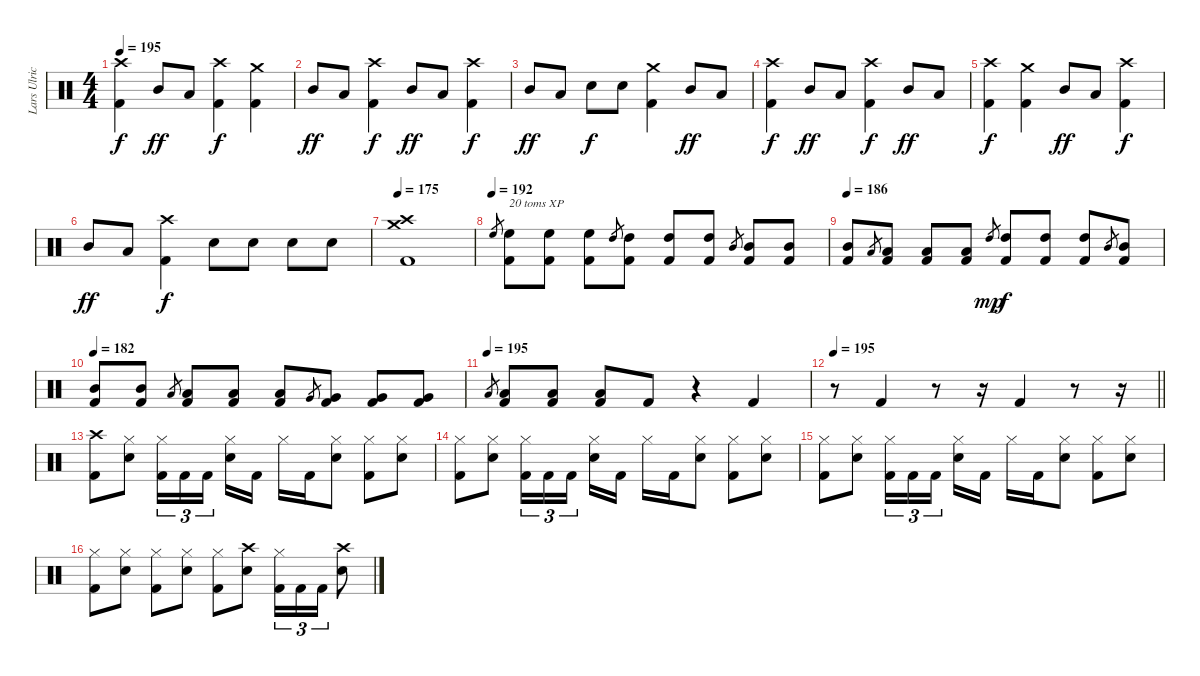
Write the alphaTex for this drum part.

\track ("Lars Ulrich" "Lars Ulric") {instrument percussion}
\staff {score}
\articulation defaults
\ts (4 4)
\tempo 195
\clef neutral
\ks c
("Crash high (hit)" "Kick (hit) 2").4{dy f} "Mid Tom (hit)".8{dy ff} "Low Tom (hit)".8 ("Crash high (hit)" "Kick (hit) 2").4{dy f} ("Crash medium (hit)" "Kick (hit) 2").4 |
"Mid Tom (hit)".8{dy ff} "Low Tom (hit)".8 ("Crash high (hit)" "Kick (hit) 2").4{dy f} "Mid Tom (hit)".8{dy ff} "Low Tom (hit)".8 ("Crash high (hit)" "Kick (hit) 2").4{dy f} |
"Mid Tom (hit)".8{dy ff} "Low Tom (hit)".8 "Electric Snare (hit)".8{dy f} "Electric Snare (hit)".8 ("Crash medium (hit)" "Kick (hit) 2").4 "Mid Tom (hit)".8{dy ff} "Low Tom (hit)".8 |
("Crash high (hit)" "Kick (hit) 2").4{dy f} "Mid Tom (hit)".8{dy ff} "Low Tom (hit)".8 ("Crash high (hit)" "Kick (hit) 2").4{dy f} "Mid Tom (hit)".8{dy ff} "Low Tom (hit)".8 |
("Crash high (hit)" "Kick (hit) 2").4{dy f} ("Crash medium (hit)" "Kick (hit) 2").4 "Mid Tom (hit)".8{dy ff} "Low Tom (hit)".8 ("Crash high (hit)" "Kick (hit) 2").4{dy f} |
"Mid Tom (hit)".8{dy ff} "Low Tom (hit)".8 ("Crash high (hit)" "Kick (hit) 2").4{dy f} "Electric Snare (hit)".8 "Electric Snare (hit)".8 "Electric Snare (hit)".8 "Electric Snare (hit)".8 |
\tempo 198
\tempo 175
("Crash medium (hit)" "Crash high (hit)" "Kick (hit) 2").1 |
\tempo (192)
"High Floor Tom (hit)".8{gr} ("High Floor Tom (hit)" "Kick (hit) 2").8{txt "20 toms XP"} ("High Floor Tom (hit)" "Kick (hit) 2").8 ("High Floor Tom (hit)" "Kick (hit) 2").8 "High Tom (hit)".8{gr} ("High Tom (hit)" "Kick (hit) 2").8 ("High Tom (hit)" "Kick (hit) 2").8 ("High Tom (hit)" "Kick (hit) 2").8 "Mid Tom (hit)".8{gr} ("Mid Tom (hit)" "Kick (hit) 2").8 ("Mid Tom (hit)" "Kick (hit) 2").8 |
\tempo 186
("Mid Tom (hit)" "Kick (hit) 2").8 "Low Tom (hit)".8{gr} ("Low Tom (hit)" "Kick (hit) 2").8 ("Low Tom (hit)" "Kick (hit) 2").8 ("Low Tom (hit)" "Kick (hit) 2").8 "High Tom (hit)".8{gr dy mp} ("High Tom (hit)" "Kick (hit) 2").8{dy f} ("High Tom (hit)" "Kick (hit) 2").8 ("High Tom (hit)" "Kick (hit) 2").8 "Mid Tom (hit)".8{gr} ("Mid Tom (hit)" "Kick (hit) 2").8 |
\tempo 182
("Mid Tom (hit)" "Kick (hit) 2").8 ("Mid Tom (hit)" "Kick (hit) 2").8 "Low Tom (hit)".8{gr} ("Low Tom (hit)" "Kick (hit) 2").8 ("Low Tom (hit)" "Kick (hit) 2").8 ("Low Tom (hit)" "Kick (hit) 2").8 "Very Low Tom (hit)".8{gr} ("Very Low Tom (hit)" "Kick (hit) 2").8 ("Very Low Tom (hit)" "Kick (hit) 2").8 ("Very Low Tom (hit)" "Kick (hit) 2").8 |
\tempo 176
\tempo (195)
"Low Floor Tom (hit)".8{gr} ("Low Floor Tom (hit)" "Kick (hit) 2").8 ("Low Floor Tom (hit)" "Kick (hit) 2").8 ("Low Floor Tom (hit)" "Kick (hit) 2").8 "Kick (hit) 2".8 r.4 "Kick (hit) 2".4 |
\tempo 195
\barLineRight lightlight
r.8 "Kick (hit) 2".4 r.8 r.16 "Kick (hit) 2".4 r.8 r.16 |
\section ("" "")
("Crash high (hit)" "Kick (hit) 2").8 ("Hi-Hat (closed)" "Electric Snare (hit)").8 ("Hi-Hat (closed)" "Kick (hit) 2").16{tu (3 2)} "Kick (hit) 2".16{tu (3 2)} "Kick (hit) 2".16{tu (3 2)} ("Hi-Hat (closed)" "Electric Snare (hit)").16 "Kick (hit) 2".16 "Hi-Hat (closed)".16 "Kick (hit) 2".16 ("Hi-Hat (closed)" "Electric Snare (hit)").8 ("Hi-Hat (closed)" "Kick (hit) 2").8 ("Hi-Hat (closed)" "Electric Snare (hit)").8 |
("Hi-Hat (closed)" "Kick (hit) 2").8 ("Hi-Hat (closed)" "Electric Snare (hit)").8 ("Hi-Hat (closed)" "Kick (hit) 2").16{tu (3 2)} "Kick (hit) 2".16{tu (3 2)} "Kick (hit) 2".16{tu (3 2)} ("Hi-Hat (closed)" "Electric Snare (hit)").16 "Kick (hit) 2".16 "Hi-Hat (closed)".16 "Kick (hit) 2".16 ("Hi-Hat (closed)" "Electric Snare (hit)").8 ("Hi-Hat (closed)" "Kick (hit) 2").8 ("Hi-Hat (closed)" "Electric Snare (hit)").8 |
("Hi-Hat (closed)" "Kick (hit) 2").8 ("Hi-Hat (closed)" "Electric Snare (hit)").8 ("Hi-Hat (closed)" "Kick (hit) 2").16{tu (3 2)} "Kick (hit) 2".16{tu (3 2)} "Kick (hit) 2".16{tu (3 2)} ("Hi-Hat (closed)" "Electric Snare (hit)").16 "Kick (hit) 2".16 "Hi-Hat (closed)".16 "Kick (hit) 2".16 ("Hi-Hat (closed)" "Electric Snare (hit)").8 ("Hi-Hat (closed)" "Kick (hit) 2").8 ("Hi-Hat (closed)" "Electric Snare (hit)").8 |
("Hi-Hat (closed)" "Kick (hit) 2").8 ("Hi-Hat (closed)" "Electric Snare (hit)").8 ("Hi-Hat (closed)" "Kick (hit) 2").8 ("Hi-Hat (closed)" "Electric Snare (hit)").8 ("Hi-Hat (closed)" "Kick (hit) 2").8 ("Crash high (hit)" "Electric Snare (hit)").8 ("Hi-Hat (closed)" "Kick (hit) 2").16{tu (3 2)} "Kick (hit) 2".16{tu (3 2)} "Kick (hit) 2".16{tu (3 2)} ("Crash high (hit)" "Electric Snare (hit)").8
